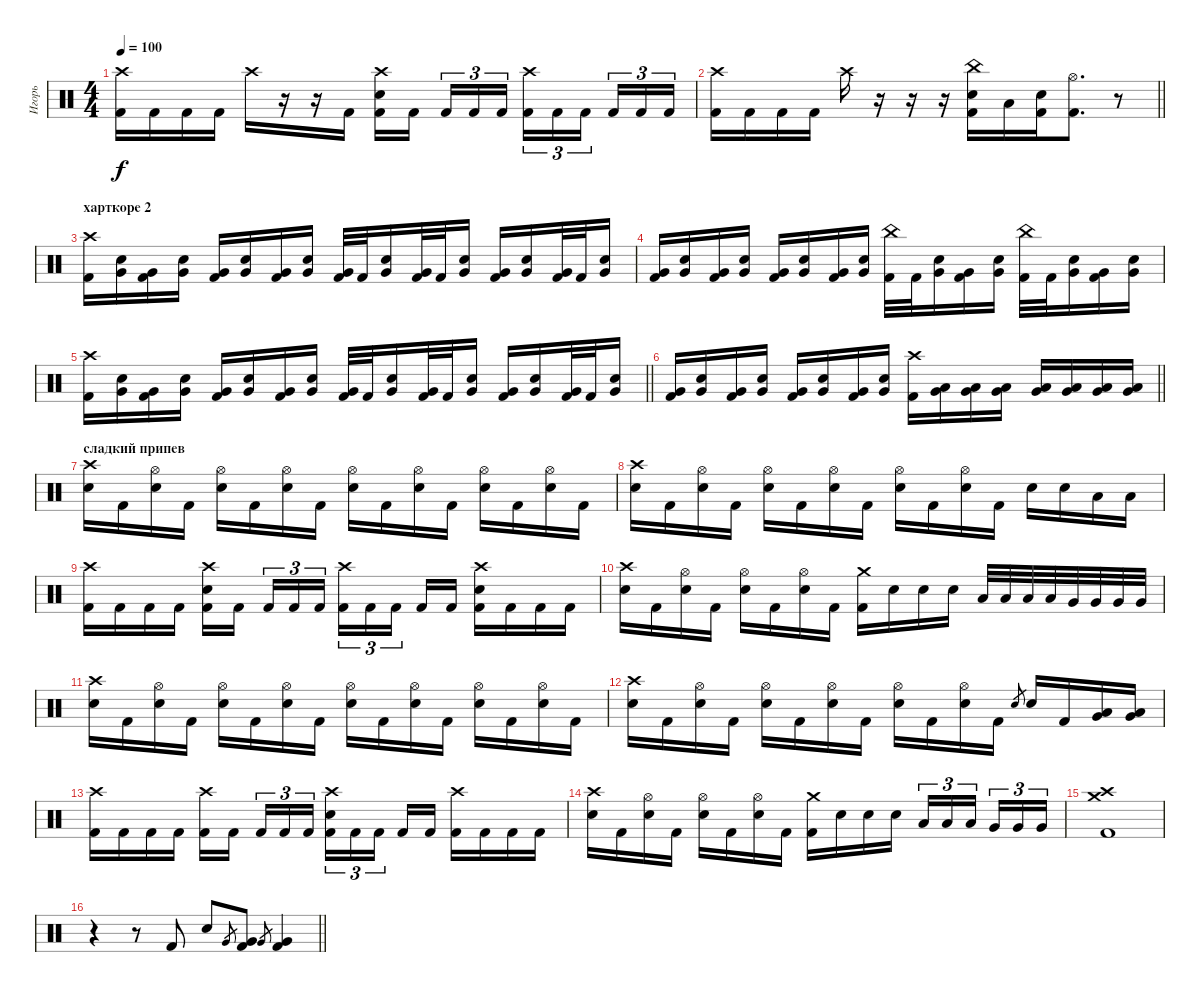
\track ("Игорь" "Игорь") {instrument percussion}
\staff {score}
\articulation defaults
\ts (4 4)
\tempo 100
\clef neutral
\ks c
("Crash high (hit)" "Kick (hit) 2").16{dy f} "Kick (hit) 2".16 "Kick (hit) 2".16 "Kick (hit) 2".16 "Crash high (hit)".16 r.16 r.16 "Kick (hit) 2".16 ("Crash high (hit)" "Electric Snare (hit)" "Kick (hit) 2").16 "Kick (hit) 2".16{beam splitsecondary} "Kick (hit) 2".16{tu (3 2)} "Kick (hit) 2".16{tu (3 2)} "Kick (hit) 2".16{tu (3 2)} ("Crash high (hit)" "Kick (hit) 2").16{tu (3 2)} "Kick (hit) 2".16{tu (3 2)} "Kick (hit) 2".16{tu (3 2) beam splitsecondary} "Kick (hit) 2".16{tu (3 2)} "Kick (hit) 2".16{tu (3 2)} "Kick (hit) 2".16{tu (3 2)} |
\barLineRight lightlight
("Crash high (hit)" "Kick (hit) 2").16 "Kick (hit) 2".16 "Kick (hit) 2".16 "Kick (hit) 2".16 "Crash high (hit)".16 r.16 r.16 r.16 ("China (hit)" "Electric Snare (hit)" "Kick (hit) 2").16 "Low Tom (hit)".16 ("Electric Snare (hit)" "Kick (hit) 2").16 ("Hi-Hat (open)" "Kick (hit) 2").8{d} r.8 |
\section ("" "харткоре 2")
("Crash high (hit)" "Kick (hit) 2").16 ("Very Low Tom (hit)" "Electric Snare (hit)").16 ("Very Low Tom (hit)" "Kick (hit) 2").16 ("Very Low Tom (hit)" "Electric Snare (hit)").16 ("Very Low Tom (hit)" "Kick (hit) 2").16 ("Very Low Tom (hit)" "Electric Snare (hit)").16 ("Very Low Tom (hit)" "Kick (hit) 2").16 ("Very Low Tom (hit)" "Electric Snare (hit)").16 ("Very Low Tom (hit)" "Kick (hit) 2").32 "Kick (hit) 2".32 ("Very Low Tom (hit)" "Electric Snare (hit)").16 ("Very Low Tom (hit)" "Kick (hit) 2").32 "Kick (hit) 2".32 ("Very Low Tom (hit)" "Electric Snare (hit)").16 ("Very Low Tom (hit)" "Kick (hit) 2").16 ("Very Low Tom (hit)" "Electric Snare (hit)").16 ("Very Low Tom (hit)" "Kick (hit) 2").32 "Kick (hit) 2".32 ("Very Low Tom (hit)" "Electric Snare (hit)").16 |
("Very Low Tom (hit)" "Kick (hit) 2").16 ("Very Low Tom (hit)" "Electric Snare (hit)").16 ("Very Low Tom (hit)" "Kick (hit) 2").16 ("Very Low Tom (hit)" "Electric Snare (hit)").16 ("Very Low Tom (hit)" "Kick (hit) 2").16 ("Very Low Tom (hit)" "Electric Snare (hit)").16 ("Very Low Tom (hit)" "Kick (hit) 2").16 ("Very Low Tom (hit)" "Electric Snare (hit)").16 ("China (hit)" "Kick (hit) 2").32 "Kick (hit) 2".32 ("Very Low Tom (hit)" "Electric Snare (hit)").16 ("Very Low Tom (hit)" "Kick (hit) 2").16 ("Very Low Tom (hit)" "Electric Snare (hit)").16 ("China (hit)" "Kick (hit) 2").32 "Kick (hit) 2".32 ("Very Low Tom (hit)" "Electric Snare (hit)").16 ("Very Low Tom (hit)" "Kick (hit) 2").16 ("Very Low Tom (hit)" "Electric Snare (hit)").16 |
\barLineRight lightlight
("Crash high (hit)" "Kick (hit) 2").16 ("Very Low Tom (hit)" "Electric Snare (hit)").16 ("Very Low Tom (hit)" "Kick (hit) 2").16 ("Very Low Tom (hit)" "Electric Snare (hit)").16 ("Very Low Tom (hit)" "Kick (hit) 2").16 ("Very Low Tom (hit)" "Electric Snare (hit)").16 ("Very Low Tom (hit)" "Kick (hit) 2").16 ("Very Low Tom (hit)" "Electric Snare (hit)").16 ("Very Low Tom (hit)" "Kick (hit) 2").32 "Kick (hit) 2".32 ("Very Low Tom (hit)" "Electric Snare (hit)").16 ("Very Low Tom (hit)" "Kick (hit) 2").32 "Kick (hit) 2".32 ("Very Low Tom (hit)" "Electric Snare (hit)").16 ("Very Low Tom (hit)" "Kick (hit) 2").16 ("Very Low Tom (hit)" "Electric Snare (hit)").16 ("Very Low Tom (hit)" "Kick (hit) 2").32 "Kick (hit) 2".32 ("Very Low Tom (hit)" "Electric Snare (hit)").16 |
\barLineRight lightlight
("Very Low Tom (hit)" "Kick (hit) 2").16 ("Very Low Tom (hit)" "Electric Snare (hit)").16 ("Very Low Tom (hit)" "Kick (hit) 2").16 ("Very Low Tom (hit)" "Electric Snare (hit)").16 ("Very Low Tom (hit)" "Kick (hit) 2").16 ("Very Low Tom (hit)" "Electric Snare (hit)").16 ("Very Low Tom (hit)" "Kick (hit) 2").16 ("Very Low Tom (hit)" "Electric Snare (hit)").16 ("Crash high (hit)" "Kick (hit) 2").16 ("Low Tom (hit)" "Very Low Tom (hit)").16 ("Low Tom (hit)" "Very Low Tom (hit)").16 ("Low Tom (hit)" "Very Low Tom (hit)").16 ("Low Tom (hit)" "Very Low Tom (hit)").16 ("Low Tom (hit)" "Very Low Tom (hit)").16 ("Low Tom (hit)" "Very Low Tom (hit)").16 ("Low Tom (hit)" "Very Low Tom (hit)").16 |
\section ("" "сладкий припев")
("Crash high (hit)" "Electric Snare (hit)").16 "Kick (hit) 2".16 ("Hi-Hat (open)" "Electric Snare (hit)").16 "Kick (hit) 2".16 ("Hi-Hat (open)" "Electric Snare (hit)").16 "Kick (hit) 2".16 ("Hi-Hat (open)" "Electric Snare (hit)").16 "Kick (hit) 2".16 ("Hi-Hat (open)" "Electric Snare (hit)").16 "Kick (hit) 2".16 ("Hi-Hat (open)" "Electric Snare (hit)").16 "Kick (hit) 2".16 ("Hi-Hat (open)" "Electric Snare (hit)").16 "Kick (hit) 2".16 ("Hi-Hat (open)" "Electric Snare (hit)").16 "Kick (hit) 2".16 |
("Crash high (hit)" "Electric Snare (hit)").16 "Kick (hit) 2".16 ("Hi-Hat (open)" "Electric Snare (hit)").16 "Kick (hit) 2".16 ("Hi-Hat (open)" "Electric Snare (hit)").16 "Kick (hit) 2".16 ("Hi-Hat (open)" "Electric Snare (hit)").16 "Kick (hit) 2".16 ("Hi-Hat (open)" "Electric Snare (hit)").16 "Kick (hit) 2".16 ("Hi-Hat (open)" "Electric Snare (hit)").16 "Kick (hit) 2".16 "Electric Snare (hit)".16 "Electric Snare (hit)".16 "Low Tom (hit)".16 "Low Tom (hit)".16 |
("Crash high (hit)" "Kick (hit) 2").16 "Kick (hit) 2".16 "Kick (hit) 2".16 "Kick (hit) 2".16 ("Crash high (hit)" "Electric Snare (hit)" "Kick (hit) 2").16 "Kick (hit) 2".16{beam splitsecondary} "Kick (hit) 2".16{tu (3 2)} "Kick (hit) 2".16{tu (3 2)} "Kick (hit) 2".16{tu (3 2)} ("Crash high (hit)" "Kick (hit) 2").16{tu (3 2)} "Kick (hit) 2".16{tu (3 2)} "Kick (hit) 2".16{tu (3 2) beam splitsecondary} "Kick (hit) 2".16 "Kick (hit) 2".16 ("Crash high (hit)" "Electric Snare (hit)" "Kick (hit) 2").16 "Kick (hit) 2".16 "Kick (hit) 2".16 "Kick (hit) 2".16 |
("Crash high (hit)" "Electric Snare (hit)").16 "Kick (hit) 2".16 ("Hi-Hat (open)" "Electric Snare (hit)").16 "Kick (hit) 2".16 ("Hi-Hat (open)" "Electric Snare (hit)").16 "Kick (hit) 2".16 ("Hi-Hat (open)" "Electric Snare (hit)").16 "Kick (hit) 2".16 ("Crash medium (hit)" "Kick (hit) 2").16 "Electric Snare (hit)".16 "Electric Snare (hit)".16 "Electric Snare (hit)".16 "Low Tom (hit)".32 "Low Tom (hit)".32 "Low Tom (hit)".32 "Low Tom (hit)".32 "Very Low Tom (hit)".32 "Very Low Tom (hit)".32 "Very Low Tom (hit)".32 "Very Low Tom (hit)".32 |
("Crash high (hit)" "Electric Snare (hit)").16 "Kick (hit) 2".16 ("Hi-Hat (open)" "Electric Snare (hit)").16 "Kick (hit) 2".16 ("Hi-Hat (open)" "Electric Snare (hit)").16 "Kick (hit) 2".16 ("Hi-Hat (open)" "Electric Snare (hit)").16 "Kick (hit) 2".16 ("Hi-Hat (open)" "Electric Snare (hit)").16 "Kick (hit) 2".16 ("Hi-Hat (open)" "Electric Snare (hit)").16 "Kick (hit) 2".16 ("Hi-Hat (open)" "Electric Snare (hit)").16 "Kick (hit) 2".16 ("Hi-Hat (open)" "Electric Snare (hit)").16 "Kick (hit) 2".16 |
("Crash high (hit)" "Electric Snare (hit)").16 "Kick (hit) 2".16 ("Hi-Hat (open)" "Electric Snare (hit)").16 "Kick (hit) 2".16 ("Hi-Hat (open)" "Electric Snare (hit)").16 "Kick (hit) 2".16 ("Hi-Hat (open)" "Electric Snare (hit)").16 "Kick (hit) 2".16 ("Hi-Hat (open)" "Electric Snare (hit)").16 "Kick (hit) 2".16 ("Hi-Hat (open)" "Electric Snare (hit)").16 "Kick (hit) 2".16 "Electric Snare (hit)".8{gr} "Electric Snare (hit)".16 "Kick (hit) 2".16 ("Low Tom (hit)" "Very Low Tom (hit)").16 ("Low Tom (hit)" "Very Low Tom (hit)").16 |
("Crash high (hit)" "Kick (hit) 2").16 "Kick (hit) 2".16 "Kick (hit) 2".16 "Kick (hit) 2".16 ("Crash high (hit)" "Kick (hit) 2").16 "Kick (hit) 2".16{beam splitsecondary} "Kick (hit) 2".16{tu (3 2)} "Kick (hit) 2".16{tu (3 2)} "Kick (hit) 2".16{tu (3 2)} ("Crash high (hit)" "Electric Snare (hit)" "Kick (hit) 2").16{tu (3 2)} "Kick (hit) 2".16{tu (3 2)} "Kick (hit) 2".16{tu (3 2) beam splitsecondary} "Kick (hit) 2".16 "Kick (hit) 2".16 ("Crash high (hit)" "Kick (hit) 2").16 "Kick (hit) 2".16 "Kick (hit) 2".16 "Kick (hit) 2".16 |
("Crash high (hit)" "Electric Snare (hit)").16 "Kick (hit) 2".16 ("Hi-Hat (open)" "Electric Snare (hit)").16 "Kick (hit) 2".16 ("Hi-Hat (open)" "Electric Snare (hit)").16 "Kick (hit) 2".16 ("Hi-Hat (open)" "Electric Snare (hit)").16 "Kick (hit) 2".16 ("Crash medium (hit)" "Kick (hit) 2").16 "Electric Snare (hit)".16 "Electric Snare (hit)".16 "Electric Snare (hit)".16 "Low Tom (hit)".16{tu (3 2)} "Low Tom (hit)".16{tu (3 2)} "Low Tom (hit)".16{tu (3 2) beam splitsecondary} "Very Low Tom (hit)".16{tu (3 2)} "Very Low Tom (hit)".16{tu (3 2)} "Very Low Tom (hit)".16{tu (3 2)} |
("Crash high (hit)" "Crash medium (hit)" "Kick (hit) 2").1 |
\barLineRight lightlight
r.4 r.8 "Kick (hit) 2".8 "Electric Snare (hit)".8 "Very Low Tom (hit)".8{gr} ("Very Low Tom (hit)" "Kick (hit) 2").8 "Very Low Tom (hit)".8{gr} ("Very Low Tom (hit)" "Kick (hit) 2").4
